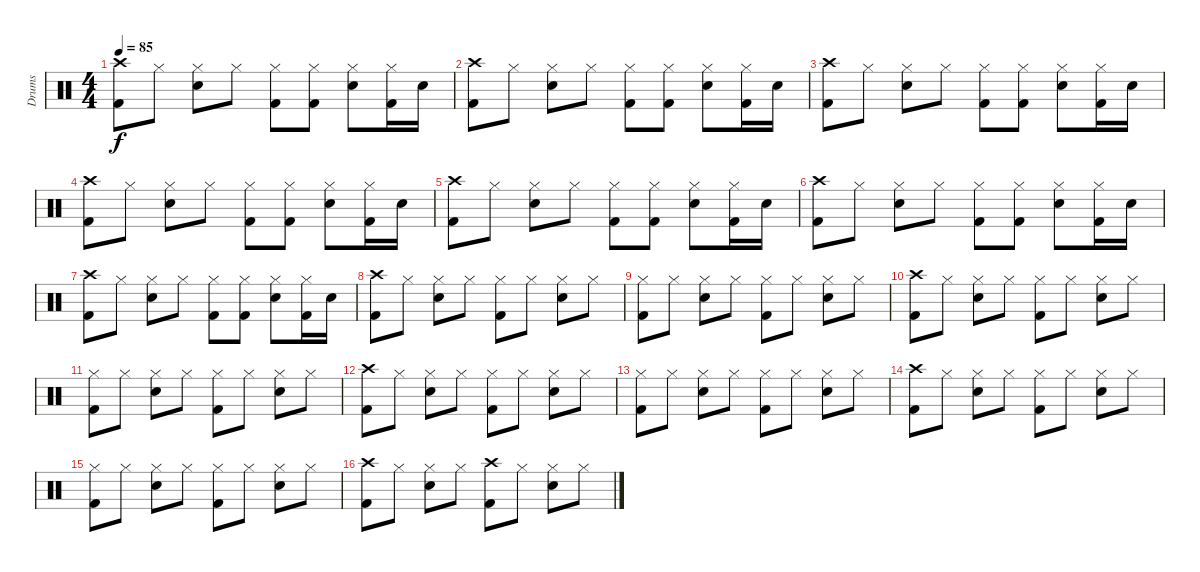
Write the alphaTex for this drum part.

\track ("Drums" "Drums") {instrument percussion}
\staff {score}
\articulation defaults
\ts (4 4)
\tempo 85
\clef neutral
\ks c
("Crash high (hit)" "Kick (hit) 2").8{dy f} "Hi-Hat (closed)".8 ("Hi-Hat (closed)" "Snare (hit) 2").8 "Hi-Hat (closed)".8 ("Hi-Hat (closed)" "Kick (hit) 2").8 ("Hi-Hat (closed)" "Kick (hit) 2").8 ("Hi-Hat (closed)" "Snare (hit) 2").8 ("Hi-Hat (closed)" "Kick (hit) 2").16 "Snare (hit) 2".16 |
("Crash high (hit)" "Kick (hit) 2").8 "Hi-Hat (closed)".8 ("Hi-Hat (closed)" "Snare (hit) 2").8 "Hi-Hat (closed)".8 ("Hi-Hat (closed)" "Kick (hit) 2").8 ("Hi-Hat (closed)" "Kick (hit) 2").8 ("Hi-Hat (closed)" "Snare (hit) 2").8 ("Hi-Hat (closed)" "Kick (hit) 2").16 "Snare (hit) 2".16 |
("Crash high (hit)" "Kick (hit) 2").8 "Hi-Hat (closed)".8 ("Hi-Hat (closed)" "Snare (hit) 2").8 "Hi-Hat (closed)".8 ("Hi-Hat (closed)" "Kick (hit) 2").8 ("Hi-Hat (closed)" "Kick (hit) 2").8 ("Hi-Hat (closed)" "Snare (hit) 2").8 ("Hi-Hat (closed)" "Kick (hit) 2").16 "Snare (hit) 2".16 |
("Crash high (hit)" "Kick (hit) 2").8 "Hi-Hat (closed)".8 ("Hi-Hat (closed)" "Snare (hit) 2").8 "Hi-Hat (closed)".8 ("Hi-Hat (closed)" "Kick (hit) 2").8 ("Hi-Hat (closed)" "Kick (hit) 2").8 ("Hi-Hat (closed)" "Snare (hit) 2").8 ("Hi-Hat (closed)" "Kick (hit) 2").16 "Snare (hit) 2".16 |
("Crash high (hit)" "Kick (hit) 2").8 "Hi-Hat (closed)".8 ("Hi-Hat (closed)" "Snare (hit) 2").8 "Hi-Hat (closed)".8 ("Hi-Hat (closed)" "Kick (hit) 2").8 ("Hi-Hat (closed)" "Kick (hit) 2").8 ("Hi-Hat (closed)" "Snare (hit) 2").8 ("Hi-Hat (closed)" "Kick (hit) 2").16 "Snare (hit) 2".16 |
("Crash high (hit)" "Kick (hit) 2").8 "Hi-Hat (closed)".8 ("Hi-Hat (closed)" "Snare (hit) 2").8 "Hi-Hat (closed)".8 ("Hi-Hat (closed)" "Kick (hit) 2").8 ("Hi-Hat (closed)" "Kick (hit) 2").8 ("Hi-Hat (closed)" "Snare (hit) 2").8 ("Hi-Hat (closed)" "Kick (hit) 2").16 "Snare (hit) 2".16 |
("Crash high (hit)" "Kick (hit) 2").8 "Hi-Hat (closed)".8 ("Hi-Hat (closed)" "Snare (hit) 2").8 "Hi-Hat (closed)".8 ("Hi-Hat (closed)" "Kick (hit) 2").8 ("Hi-Hat (closed)" "Kick (hit) 2").8 ("Hi-Hat (closed)" "Snare (hit) 2").8 ("Hi-Hat (closed)" "Kick (hit) 2").16 "Snare (hit) 2".16 |
("Crash high (hit)" "Kick (hit) 2").8 "Hi-Hat (closed)".8 ("Hi-Hat (closed)" "Snare (hit) 2").8 "Hi-Hat (closed)".8 ("Hi-Hat (closed)" "Kick (hit) 2").8 "Hi-Hat (closed)".8 ("Hi-Hat (closed)" "Snare (hit) 2").8 "Hi-Hat (closed)".8 |
("Hi-Hat (closed)" "Kick (hit) 2").8 "Hi-Hat (closed)".8 ("Hi-Hat (closed)" "Snare (hit) 2").8 "Hi-Hat (closed)".8 ("Hi-Hat (closed)" "Kick (hit) 2").8 "Hi-Hat (closed)".8 ("Hi-Hat (closed)" "Snare (hit) 2").8 "Hi-Hat (closed)".8 |
("Crash high (hit)" "Kick (hit) 2").8 "Hi-Hat (closed)".8 ("Hi-Hat (closed)" "Snare (hit) 2").8 "Hi-Hat (closed)".8 ("Hi-Hat (closed)" "Kick (hit) 2").8 "Hi-Hat (closed)".8 ("Hi-Hat (closed)" "Snare (hit) 2").8 "Hi-Hat (closed)".8 |
("Hi-Hat (closed)" "Kick (hit) 2").8 "Hi-Hat (closed)".8 ("Hi-Hat (closed)" "Snare (hit) 2").8 "Hi-Hat (closed)".8 ("Hi-Hat (closed)" "Kick (hit) 2").8 "Hi-Hat (closed)".8 ("Hi-Hat (closed)" "Snare (hit) 2").8 "Hi-Hat (closed)".8 |
("Crash high (hit)" "Kick (hit) 2").8 "Hi-Hat (closed)".8 ("Hi-Hat (closed)" "Snare (hit) 2").8 "Hi-Hat (closed)".8 ("Hi-Hat (closed)" "Kick (hit) 2").8 "Hi-Hat (closed)".8 ("Hi-Hat (closed)" "Snare (hit) 2").8 "Hi-Hat (closed)".8 |
("Hi-Hat (closed)" "Kick (hit) 2").8 "Hi-Hat (closed)".8 ("Hi-Hat (closed)" "Snare (hit) 2").8 "Hi-Hat (closed)".8 ("Hi-Hat (closed)" "Kick (hit) 2").8 "Hi-Hat (closed)".8 ("Hi-Hat (closed)" "Snare (hit) 2").8 "Hi-Hat (closed)".8 |
("Crash high (hit)" "Kick (hit) 2").8 "Hi-Hat (closed)".8 ("Hi-Hat (closed)" "Snare (hit) 2").8 "Hi-Hat (closed)".8 ("Hi-Hat (closed)" "Kick (hit) 2").8 "Hi-Hat (closed)".8 ("Hi-Hat (closed)" "Snare (hit) 2").8 "Hi-Hat (closed)".8 |
("Hi-Hat (closed)" "Kick (hit) 2").8 "Hi-Hat (closed)".8 ("Hi-Hat (closed)" "Snare (hit) 2").8 "Hi-Hat (closed)".8 ("Hi-Hat (closed)" "Kick (hit) 2").8 "Hi-Hat (closed)".8 ("Hi-Hat (closed)" "Snare (hit) 2").8 "Hi-Hat (closed)".8 |
("Crash high (hit)" "Kick (hit) 2").8 "Hi-Hat (closed)".8 ("Hi-Hat (closed)" "Snare (hit) 2").8 "Hi-Hat (closed)".8 ("Crash high (hit)" "Kick (hit) 2").8 "Hi-Hat (closed)".8 ("Hi-Hat (closed)" "Snare (hit) 2").8 "Hi-Hat (closed)".8
